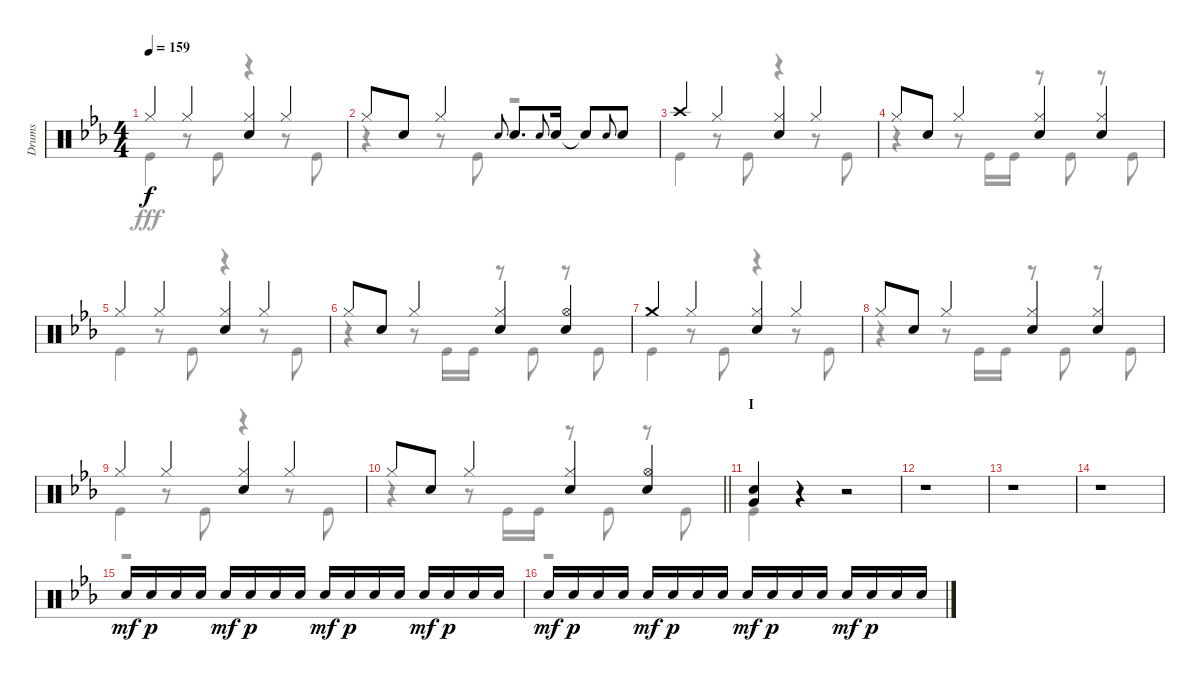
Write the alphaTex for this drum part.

\track ("Drums" "Drums") {instrument percussion}
\staff {score}
\articulation defaults
\voice
\ts (4 4)
\tempo 159
\clef neutral
\ks eb "Hi-Hat (closed)".4{dy f} "Hi-Hat (closed)".4
("Hi-Hat (closed)" "Snare (hit) 2").4 "Hi-Hat (closed)".4 |
"Hi-Hat (closed)".8 "Snare (hit) 2".8 "Hi-Hat (closed)".4 "Snare (hit) 2".8{gr onbeat} "Snare (hit) 2".8{d} "Snare (hit) 2".8{gr onbeat} "Snare (hit) 2".16 "Snare (hit)"{t}.8 "Snare (hit) 2".8{gr onbeat} "Snare (hit) 2".8 |
"Crash high (hit)".4 "Hi-Hat (closed)".4 ("Hi-Hat (closed)" "Snare (hit) 2").4 "Hi-Hat (closed)".4 |
"Hi-Hat (closed)".8 "Snare (hit) 2".8 "Hi-Hat (closed)".4 ("Hi-Hat (closed)" "Snare (hit) 2").4 ("Hi-Hat (closed)" "Snare (hit) 2").4 |
"Hi-Hat (closed)".4 "Hi-Hat (closed)".4 ("Hi-Hat (closed)" "Snare (hit) 2").4 "Hi-Hat (closed)".4 |
"Hi-Hat (closed)".8 "Snare (hit) 2".8 "Hi-Hat (closed)".4 ("Hi-Hat (closed)" "Snare (hit) 2").4 ("Hi-Hat (open)" "Snare (hit) 2").4 |
"Crash medium (hit)".4 "Hi-Hat (closed)".4 ("Hi-Hat (closed)" "Snare (hit) 2").4 "Hi-Hat (closed)".4 |
"Hi-Hat (closed)".8 "Snare (hit) 2".8 "Hi-Hat (closed)".4 ("Hi-Hat (closed)" "Snare (hit) 2").4 ("Hi-Hat (closed)" "Snare (hit) 2").4 |
"Hi-Hat (closed)".4 "Hi-Hat (closed)".4 ("Hi-Hat (closed)" "Snare (hit) 2").4 "Hi-Hat (closed)".4 |
\barLineRight lightlight "Hi-Hat (closed)".8 "Snare (hit) 2".8 "Hi-Hat (closed)".4
("Hi-Hat (closed)" "Snare (hit) 2").4 ("Hi-Hat (open)" "Snare (hit) 2").4 |
\section ("" "I")
("Snare (hit) 2" "Very Low Tom (hit)").4 r.4 r.2 |
r.1 |
r.1 |
r.1 |
"Snare (hit) 2".16{dy mf} "Snare (hit) 2".16{dy p} "Snare (hit) 2".16 "Snare (hit) 2".16 "Snare (hit) 2".16{dy mf} "Snare (hit) 2".16{dy p} "Snare (hit) 2".16 "Snare (hit) 2".16 "Snare (hit) 2".16{dy mf} "Snare (hit) 2".16{dy p} "Snare (hit) 2".16 "Snare (hit) 2".16 "Snare (hit) 2".16{dy mf} "Snare (hit) 2".16{dy p} "Snare (hit) 2".16 "Snare (hit) 2".16 |
"Snare (hit) 2".16{dy mf} "Snare (hit) 2".16{dy p} "Snare (hit) 2".16 "Snare (hit) 2".16 "Snare (hit) 2".16{dy mf} "Snare (hit) 2".16{dy p} "Snare (hit) 2".16 "Snare (hit) 2".16 "Snare (hit) 2".16{dy mf} "Snare (hit) 2".16{dy p} "Snare (hit) 2".16 "Snare (hit) 2".16 "Snare (hit) 2".16{dy mf} "Snare (hit) 2".16{dy p} "Snare (hit) 2".16 "Snare (hit) 2".16
\voice
\clef neutral
\ottava regular
\simile none
\ks eb "Kick (hit)".4{dy fff}
r.8 "Kick (hit)".8 r.4 r.8 "Kick (hit)".8 |
r.4 r.8 "Kick (hit)".8 r.2 |
"Kick (hit)".4 r.8 "Kick (hit)".8 r.4 r.8 "Kick (hit)".8 |
r.4 r.8 "Kick (hit)".16 "Kick (hit)".16 r.8 "Kick (hit)".8 r.8 "Kick (hit)".8 |
"Kick (hit)".4 r.8 "Kick (hit)".8 r.4 r.8 "Kick (hit)".8 |
r.4 r.8 "Kick (hit)".16 "Kick (hit)".16 r.8 "Kick (hit)".8 r.8 "Kick (hit)".8 |
"Kick (hit)".4 r.8 "Kick (hit)".8 r.4 r.8 "Kick (hit)".8 |
r.4 r.8 "Kick (hit)".16 "Kick (hit)".16 r.8 "Kick (hit)".8 r.8 "Kick (hit)".8 |
"Kick (hit)".4 r.8 "Kick (hit)".8 r.4 r.8 "Kick (hit)".8 |
\barLineRight lightlight
r.4 r.8 "Kick (hit)".16 "Kick (hit)".16 r.8 "Kick (hit)".8 r.8 "Kick (hit)".8 |
"Kick (hit)".4 r.4 r.2 |
r.1 |
r.1 |
r.1 |
r.1 |
r.1
